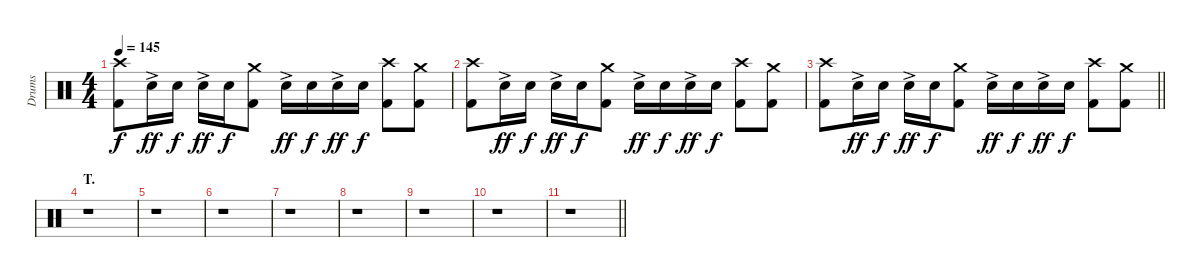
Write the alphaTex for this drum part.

\track ("Drums" "Drums") {instrument percussion}
\staff {score}
\articulation defaults
\ts (4 4)
\tempo 145
\clef neutral
\ks c
("Crash high (hit)" "Kick (hit) 2").8{dy f} "Electric Snare (hit)"{ac}.16{dy ff} "Electric Snare (hit)".16{dy f} "Electric Snare (hit)"{ac}.16{dy ff} "Electric Snare (hit)".16{dy f} ("Crash medium (hit)" "Kick (hit) 2").8 "Electric Snare (hit)"{ac}.16{dy ff} "Electric Snare (hit)".16{dy f} "Electric Snare (hit)"{ac}.16{dy ff} "Electric Snare (hit)".16{dy f} ("Crash high (hit)" "Kick (hit) 2").8 ("Crash medium (hit)" "Kick (hit) 2").8 |
("Crash high (hit)" "Kick (hit) 2").8 "Electric Snare (hit)"{ac}.16{dy ff} "Electric Snare (hit)".16{dy f} "Electric Snare (hit)"{ac}.16{dy ff} "Electric Snare (hit)".16{dy f} ("Crash medium (hit)" "Kick (hit) 2").8 "Electric Snare (hit)"{ac}.16{dy ff} "Electric Snare (hit)".16{dy f} "Electric Snare (hit)"{ac}.16{dy ff} "Electric Snare (hit)".16{dy f} ("Crash high (hit)" "Kick (hit) 2").8 ("Crash medium (hit)" "Kick (hit) 2").8 |
\barLineRight lightlight
("Crash high (hit)" "Kick (hit) 2").8 "Electric Snare (hit)"{ac}.16{dy ff} "Electric Snare (hit)".16{dy f} "Electric Snare (hit)"{ac}.16{dy ff} "Electric Snare (hit)".16{dy f} ("Crash medium (hit)" "Kick (hit) 2").8 "Electric Snare (hit)"{ac}.16{dy ff} "Electric Snare (hit)".16{dy f} "Electric Snare (hit)"{ac}.16{dy ff} "Electric Snare (hit)".16{dy f} ("Crash high (hit)" "Kick (hit) 2").8 ("Crash medium (hit)" "Kick (hit) 2").8 |
\section ("" "T.")
r.1 |
r.1 |
r.1 |
r.1 |
r.1 |
r.1 |
r.1 |
\barLineRight lightlight
r.1
